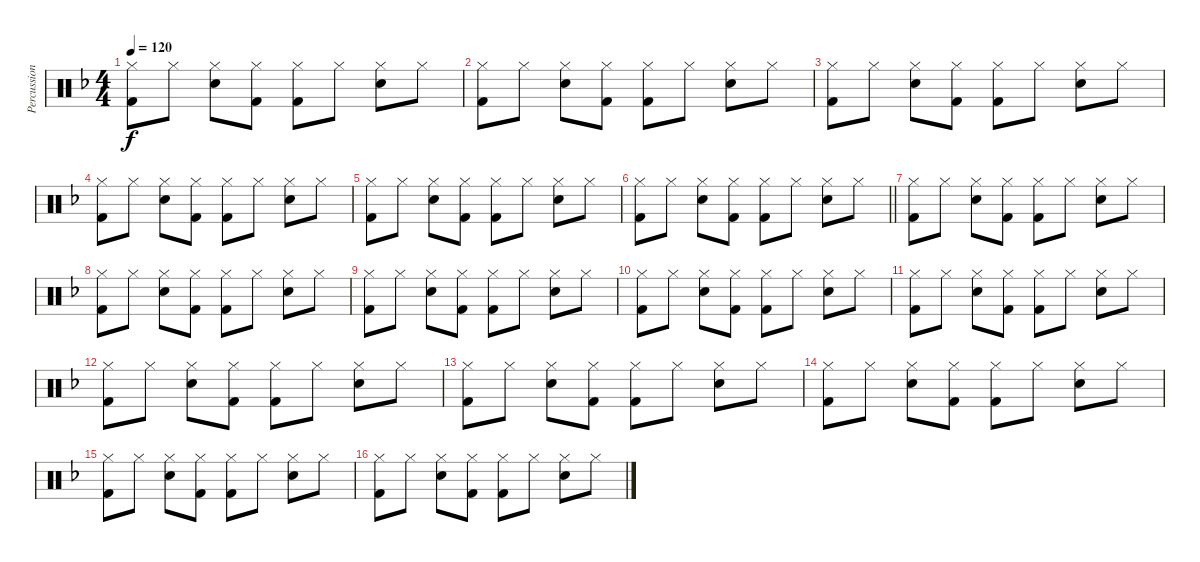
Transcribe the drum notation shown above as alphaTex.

\track ("Percussion" "Percussion") {instrument percussion}
\staff {score}
\articulation defaults
\ts (4 4)
\tempo 120
\clef neutral
\ks f
("Hi-Hat (closed)" "Kick (hit) 2").8{dy f} "Hi-Hat (closed)".8 ("Hi-Hat (closed)" "Snare (hit) 2").8 ("Hi-Hat (closed)" "Kick (hit) 2").8 ("Hi-Hat (closed)" "Kick (hit) 2").8 "Hi-Hat (closed)".8 ("Hi-Hat (closed)" "Snare (hit) 2").8 "Hi-Hat (closed)".8 |
("Hi-Hat (closed)" "Kick (hit) 2").8 "Hi-Hat (closed)".8 ("Hi-Hat (closed)" "Snare (hit) 2").8 ("Hi-Hat (closed)" "Kick (hit) 2").8 ("Hi-Hat (closed)" "Kick (hit) 2").8 "Hi-Hat (closed)".8 ("Hi-Hat (closed)" "Snare (hit) 2").8 "Hi-Hat (closed)".8 |
("Hi-Hat (closed)" "Kick (hit) 2").8 "Hi-Hat (closed)".8 ("Hi-Hat (closed)" "Snare (hit) 2").8 ("Hi-Hat (closed)" "Kick (hit) 2").8 ("Hi-Hat (closed)" "Kick (hit) 2").8 "Hi-Hat (closed)".8 ("Hi-Hat (closed)" "Snare (hit) 2").8 "Hi-Hat (closed)".8 |
("Hi-Hat (closed)" "Kick (hit) 2").8 "Hi-Hat (closed)".8 ("Hi-Hat (closed)" "Snare (hit) 2").8 ("Hi-Hat (closed)" "Kick (hit) 2").8 ("Hi-Hat (closed)" "Kick (hit) 2").8 "Hi-Hat (closed)".8 ("Hi-Hat (closed)" "Snare (hit) 2").8 "Hi-Hat (closed)".8 |
("Hi-Hat (closed)" "Kick (hit) 2").8 "Hi-Hat (closed)".8 ("Hi-Hat (closed)" "Snare (hit) 2").8 ("Hi-Hat (closed)" "Kick (hit) 2").8 ("Hi-Hat (closed)" "Kick (hit) 2").8 "Hi-Hat (closed)".8 ("Hi-Hat (closed)" "Snare (hit) 2").8 "Hi-Hat (closed)".8 |
\barLineRight lightlight
("Hi-Hat (closed)" "Kick (hit) 2").8 "Hi-Hat (closed)".8 ("Hi-Hat (closed)" "Snare (hit) 2").8 ("Hi-Hat (closed)" "Kick (hit) 2").8 ("Hi-Hat (closed)" "Kick (hit) 2").8 "Hi-Hat (closed)".8 ("Hi-Hat (closed)" "Snare (hit) 2").8 "Hi-Hat (closed)".8 |
("Hi-Hat (closed)" "Kick (hit) 2").8 "Hi-Hat (closed)".8 ("Hi-Hat (closed)" "Snare (hit) 2").8 ("Hi-Hat (closed)" "Kick (hit) 2").8 ("Hi-Hat (closed)" "Kick (hit) 2").8 "Hi-Hat (closed)".8 ("Hi-Hat (closed)" "Snare (hit) 2").8 "Hi-Hat (closed)".8 |
("Hi-Hat (closed)" "Kick (hit) 2").8 "Hi-Hat (closed)".8 ("Hi-Hat (closed)" "Snare (hit) 2").8 ("Hi-Hat (closed)" "Kick (hit) 2").8 ("Hi-Hat (closed)" "Kick (hit) 2").8 "Hi-Hat (closed)".8 ("Hi-Hat (closed)" "Snare (hit) 2").8 "Hi-Hat (closed)".8 |
("Hi-Hat (closed)" "Kick (hit) 2").8 "Hi-Hat (closed)".8 ("Hi-Hat (closed)" "Snare (hit) 2").8 ("Hi-Hat (closed)" "Kick (hit) 2").8 ("Hi-Hat (closed)" "Kick (hit) 2").8 "Hi-Hat (closed)".8 ("Hi-Hat (closed)" "Snare (hit) 2").8 "Hi-Hat (closed)".8 |
("Hi-Hat (closed)" "Kick (hit) 2").8 "Hi-Hat (closed)".8 ("Hi-Hat (closed)" "Snare (hit) 2").8 ("Hi-Hat (closed)" "Kick (hit) 2").8 ("Hi-Hat (closed)" "Kick (hit) 2").8 "Hi-Hat (closed)".8 ("Hi-Hat (closed)" "Snare (hit) 2").8 "Hi-Hat (closed)".8 |
("Hi-Hat (closed)" "Kick (hit) 2").8 "Hi-Hat (closed)".8 ("Hi-Hat (closed)" "Snare (hit) 2").8 ("Hi-Hat (closed)" "Kick (hit) 2").8 ("Hi-Hat (closed)" "Kick (hit) 2").8 "Hi-Hat (closed)".8 ("Hi-Hat (closed)" "Snare (hit) 2").8 "Hi-Hat (closed)".8 |
("Hi-Hat (closed)" "Kick (hit) 2").8 "Hi-Hat (closed)".8 ("Hi-Hat (closed)" "Snare (hit) 2").8 ("Hi-Hat (closed)" "Kick (hit) 2").8 ("Hi-Hat (closed)" "Kick (hit) 2").8 "Hi-Hat (closed)".8 ("Hi-Hat (closed)" "Snare (hit) 2").8 "Hi-Hat (closed)".8 |
("Hi-Hat (closed)" "Kick (hit) 2").8 "Hi-Hat (closed)".8 ("Hi-Hat (closed)" "Snare (hit) 2").8 ("Hi-Hat (closed)" "Kick (hit) 2").8 ("Hi-Hat (closed)" "Kick (hit) 2").8 "Hi-Hat (closed)".8 ("Hi-Hat (closed)" "Snare (hit) 2").8 "Hi-Hat (closed)".8 |
("Hi-Hat (closed)" "Kick (hit) 2").8 "Hi-Hat (closed)".8 ("Hi-Hat (closed)" "Snare (hit) 2").8 ("Hi-Hat (closed)" "Kick (hit) 2").8 ("Hi-Hat (closed)" "Kick (hit) 2").8 "Hi-Hat (closed)".8 ("Hi-Hat (closed)" "Snare (hit) 2").8 "Hi-Hat (closed)".8 |
("Hi-Hat (closed)" "Kick (hit) 2").8 "Hi-Hat (closed)".8 ("Hi-Hat (closed)" "Snare (hit) 2").8 ("Hi-Hat (closed)" "Kick (hit) 2").8 ("Hi-Hat (closed)" "Kick (hit) 2").8 "Hi-Hat (closed)".8 ("Hi-Hat (closed)" "Snare (hit) 2").8 "Hi-Hat (closed)".8 |
("Hi-Hat (closed)" "Kick (hit) 2").8 "Hi-Hat (closed)".8 ("Hi-Hat (closed)" "Snare (hit) 2").8 ("Hi-Hat (closed)" "Kick (hit) 2").8 ("Hi-Hat (closed)" "Kick (hit) 2").8 "Hi-Hat (closed)".8 ("Hi-Hat (closed)" "Snare (hit) 2").8 "Hi-Hat (closed)".8
